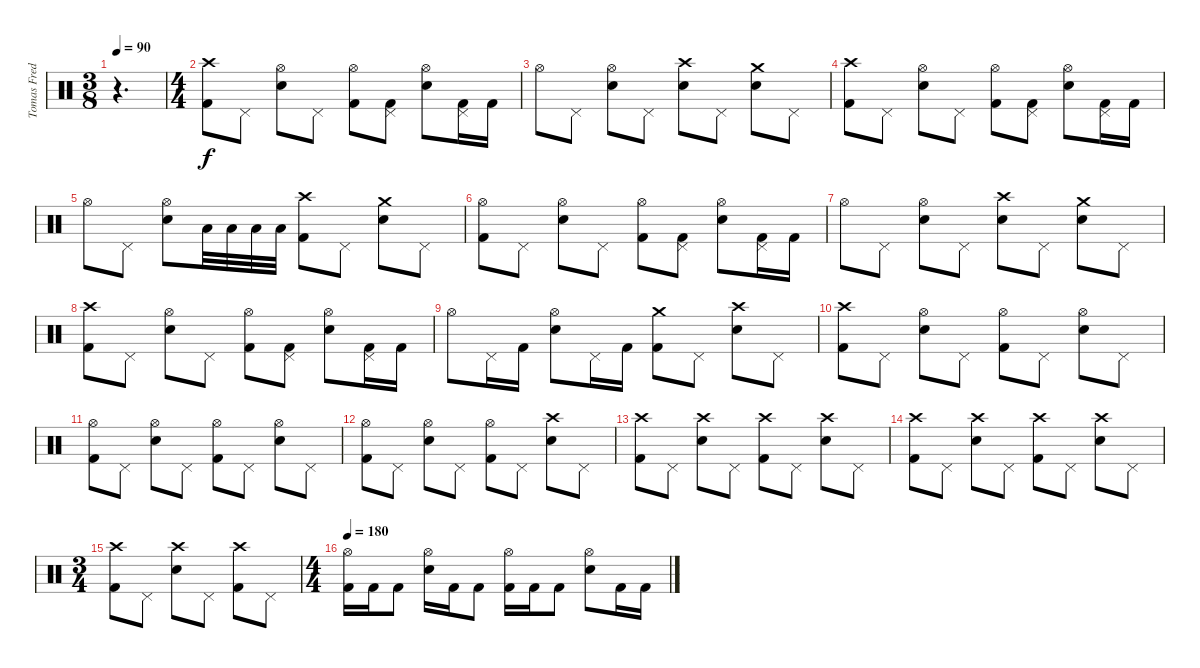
\track ("Tomas Fredén - drums  " "Tomas Fred") {instrument percussion}
\staff {score}
\articulation defaults
\ts (3 8)
\tempo 90
\clef neutral
\ks c
r.4{d dy f} |
\ts (4 4)
("Crash high (hit)" "Kick (hit) 2").8 "Pedal Hi-Hat (hit)".8 ("Hi-Hat (open)" "Snare (hit) 2").8 "Pedal Hi-Hat (hit)".8 ("Hi-Hat (open)" "Kick (hit) 2").8 ("Pedal Hi-Hat (hit)" "Kick (hit) 2").8 ("Hi-Hat (open)" "Snare (hit) 2").8 ("Pedal Hi-Hat (hit)" "Kick (hit) 2").16 "Kick (hit) 2".16 |
"Hi-Hat (open)".8 "Pedal Hi-Hat (hit)".8 ("Hi-Hat (open)" "Snare (hit) 2").8 "Pedal Hi-Hat (hit)".8 ("Crash high (hit)" "Snare (hit) 2").8 "Pedal Hi-Hat (hit)".8 ("Crash medium (hit)" "Snare (hit) 2").8 "Pedal Hi-Hat (hit)".8 |
("Crash high (hit)" "Kick (hit) 2").8 "Pedal Hi-Hat (hit)".8 ("Hi-Hat (open)" "Snare (hit) 2").8 "Pedal Hi-Hat (hit)".8 ("Hi-Hat (open)" "Kick (hit) 2").8 ("Pedal Hi-Hat (hit)" "Kick (hit) 2").8 ("Hi-Hat (open)" "Snare (hit) 2").8 ("Pedal Hi-Hat (hit)" "Kick (hit) 2").16 "Kick (hit) 2".16 |
"Hi-Hat (open)".8 "Pedal Hi-Hat (hit)".8 ("Hi-Hat (open)" "Snare (hit) 2").8 "Low Tom (hit)".32 "Low Tom (hit)".32 "Low Tom (hit)".32 "Low Tom (hit)".32 ("Crash high (hit)" "Kick (hit) 2").8 "Pedal Hi-Hat (hit)".8 ("Crash medium (hit)" "Snare (hit) 2").8 "Pedal Hi-Hat (hit)".8 |
("Hi-Hat (open)" "Kick (hit) 2").8 "Pedal Hi-Hat (hit)".8 ("Hi-Hat (open)" "Snare (hit) 2").8 "Pedal Hi-Hat (hit)".8 ("Hi-Hat (open)" "Kick (hit) 2").8 ("Pedal Hi-Hat (hit)" "Kick (hit) 2").8 ("Hi-Hat (open)" "Snare (hit) 2").8 ("Pedal Hi-Hat (hit)" "Kick (hit) 2").16 "Kick (hit) 2".16 |
"Hi-Hat (open)".8 "Pedal Hi-Hat (hit)".8 ("Hi-Hat (open)" "Snare (hit) 2").8 "Pedal Hi-Hat (hit)".8 ("Crash high (hit)" "Snare (hit) 2").8 "Pedal Hi-Hat (hit)".8 ("Crash medium (hit)" "Snare (hit) 2").8 "Pedal Hi-Hat (hit)".8 |
("Crash high (hit)" "Kick (hit) 2").8 "Pedal Hi-Hat (hit)".8 ("Hi-Hat (open)" "Snare (hit) 2").8 "Pedal Hi-Hat (hit)".8 ("Hi-Hat (open)" "Kick (hit) 2").8 ("Pedal Hi-Hat (hit)" "Kick (hit) 2").8 ("Hi-Hat (open)" "Snare (hit) 2").8 ("Pedal Hi-Hat (hit)" "Kick (hit) 2").16 "Kick (hit) 2".16 |
"Hi-Hat (open)".8 "Pedal Hi-Hat (hit)".16 "Kick (hit) 2".16 ("Hi-Hat (open)" "Snare (hit) 2").8 "Pedal Hi-Hat (hit)".16 "Kick (hit) 2".16 ("Crash medium (hit)" "Kick (hit) 2").8 "Pedal Hi-Hat (hit)".8 ("Crash high (hit)" "Snare (hit) 2").8 "Pedal Hi-Hat (hit)".8 |
("Crash high (hit)" "Kick (hit) 2").8 "Pedal Hi-Hat (hit)".8 ("Hi-Hat (open)" "Snare (hit) 2").8 "Pedal Hi-Hat (hit)".8 ("Hi-Hat (open)" "Kick (hit) 2").8 "Pedal Hi-Hat (hit)".8 ("Hi-Hat (open)" "Snare (hit) 2").8 "Pedal Hi-Hat (hit)".8 |
("Hi-Hat (open)" "Kick (hit) 2").8 "Pedal Hi-Hat (hit)".8 ("Hi-Hat (open)" "Snare (hit) 2").8 "Pedal Hi-Hat (hit)".8 ("Hi-Hat (open)" "Kick (hit) 2").8 "Pedal Hi-Hat (hit)".8 ("Hi-Hat (open)" "Snare (hit) 2").8 "Pedal Hi-Hat (hit)".8 |
("Hi-Hat (open)" "Kick (hit) 2").8 "Pedal Hi-Hat (hit)".8 ("Hi-Hat (open)" "Snare (hit) 2").8 "Pedal Hi-Hat (hit)".8 ("Hi-Hat (open)" "Kick (hit) 2").8 "Pedal Hi-Hat (hit)".8 ("Crash high (hit)" "Snare (hit) 2").8 "Pedal Hi-Hat (hit)".8 |
("Crash high (hit)" "Kick (hit) 2").8 "Pedal Hi-Hat (hit)".8 ("Crash high (hit)" "Snare (hit) 2").8 "Pedal Hi-Hat (hit)".8 ("Crash high (hit)" "Kick (hit) 2").8 "Pedal Hi-Hat (hit)".8 ("Crash high (hit)" "Snare (hit) 2").8 "Pedal Hi-Hat (hit)".8 |
("Crash high (hit)" "Kick (hit) 2").8 "Pedal Hi-Hat (hit)".8 ("Crash high (hit)" "Snare (hit) 2").8 "Pedal Hi-Hat (hit)".8 ("Crash high (hit)" "Kick (hit) 2").8 "Pedal Hi-Hat (hit)".8 ("Crash high (hit)" "Snare (hit) 2").8 "Pedal Hi-Hat (hit)".8 |
\ts (3 4)
("Crash high (hit)" "Kick (hit) 2").8 "Pedal Hi-Hat (hit)".8 ("Crash high (hit)" "Snare (hit) 2").8 "Pedal Hi-Hat (hit)".8 ("Crash high (hit)" "Kick (hit) 2").8 "Pedal Hi-Hat (hit)".8 |
\ts (4 4)
\tempo 180
("Hi-Hat (open)" "Kick (hit) 2").16 "Kick (hit) 2".16 "Kick (hit) 2".8 ("Hi-Hat (open)" "Snare (hit) 2").16 "Kick (hit) 2".16 "Kick (hit) 2".8 ("Hi-Hat (open)" "Kick (hit) 2").16 "Kick (hit) 2".16 "Kick (hit) 2".8 ("Hi-Hat (open)" "Snare (hit) 2").8 "Kick (hit) 2".16 "Kick (hit) 2".16
